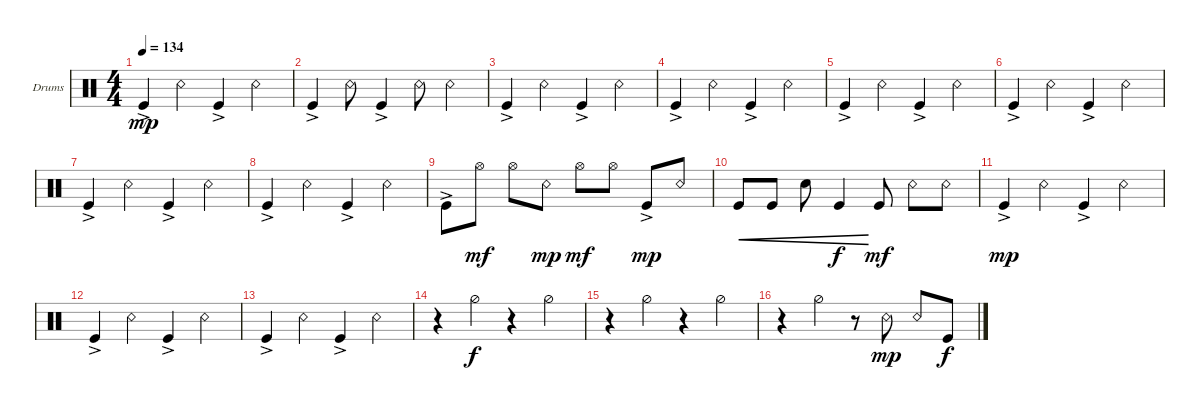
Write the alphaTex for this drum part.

\defaultSystemsLayout 4
\bracketExtendMode groupsimilarinstruments
\firstSystemTrackNameOrientation horizontal
\otherSystemsTrackNameOrientation horizontal
\track ("Drumkit" "Drums") {instrument percussion}
\staff {score}
\articulation defaults
\ts (4 4)
\tempo 134
\clef neutral
\ks c "Kick (hit)"{ac}.4{dy mp} "Snare (rim shot)".4 "Kick (hit)"{ac}.4 "Snare (rim shot)".4
|
"Kick (hit)"{ac}.4 "Snare (rim shot)".8 "Kick (hit)"{ac}.4 "Snare (rim shot)".8 "Snare (rim shot)".4 |
"Kick (hit)"{ac}.4 "Snare (rim shot)".4 "Kick (hit)"{ac}.4 "Snare (rim shot)".4 |
"Kick (hit)"{ac}.4 "Snare (rim shot)".4 "Kick (hit)"{ac}.4 "Snare (rim shot)".4 |
"Kick (hit)"{ac}.4 "Snare (rim shot)".4 "Kick (hit)"{ac}.4 "Snare (rim shot)".4 |
"Kick (hit)"{ac}.4 "Snare (rim shot)".4 "Kick (hit)"{ac}.4 "Snare (rim shot)".4 |
"Kick (hit)"{ac}.4 "Snare (rim shot)".4 "Kick (hit)"{ac}.4 "Snare (rim shot)".4 |
"Kick (hit)"{ac}.4 "Snare (rim shot)".4 "Kick (hit)"{ac}.4 "Snare (rim shot)".4 |
"Kick (hit)"{ac}.8 "Hi-Hat (open)".8{dy mf} "Hi-Hat (open)".8 "Snare (rim shot)".8{dy mp} "Hi-Hat (open)".8{dy mf} "Hi-Hat (open)".8 "Kick (hit)"{ac}.8{dy mp} "Snare (rim shot)".8 |
"Kick (hit)".8{cre} "Kick (hit)".8{cre} "Snare (hit) 2".8{cre} "Kick (hit)".4{cre dy f} "Kick (hit)".8{dy mf} "Snare (rim shot)".8 "Snare (rim shot)".8 |
"Kick (hit)"{ac}.4{dy mp} "Snare (rim shot)".4 "Kick (hit)"{ac}.4 "Snare (rim shot)".4 |
"Kick (hit)"{ac}.4 "Snare (rim shot)".4 "Kick (hit)"{ac}.4 "Snare (rim shot)".4 |
"Kick (hit)"{ac}.4 "Snare (rim shot)".4 "Kick (hit)"{ac}.4 "Snare (rim shot)".4 |
r.4 "Hi-Hat (half)".4{dy f} r.4 "Hi-Hat (half)".4 |
r.4 "Hi-Hat (half)".4 r.4 "Hi-Hat (half)".4 |
r.4 "Hi-Hat (half)".4 r.8 "Snare (rim shot)".8{dy mp} "Snare (rim shot)".8 "Kick (hit)".8{dy f}
